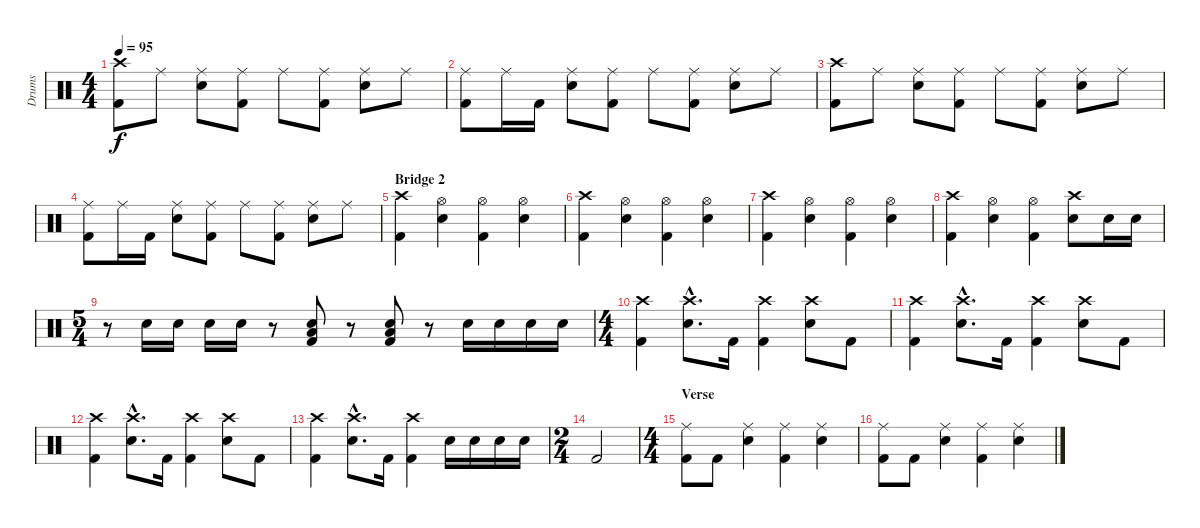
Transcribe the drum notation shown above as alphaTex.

\track ("Drums" "Drums") {instrument percussion}
\staff {score}
\articulation defaults
\ts (4 4)
\tempo 95
\clef neutral
\ks c
("Crash high (hit)" "Kick (hit) 2").8{dy f} "Ride (middle)".8 ("Ride (middle)" "Electric Snare (hit)").8 ("Ride (middle)" "Kick (hit) 2").8 "Ride (middle)".8 ("Ride (middle)" "Kick (hit) 2").8 ("Ride (middle)" "Electric Snare (hit)").8 "Ride (middle)".8 |
("Ride (middle)" "Kick (hit) 2").8 "Ride (middle)".16 "Kick (hit) 2".16 ("Ride (middle)" "Electric Snare (hit)").8 ("Ride (middle)" "Kick (hit) 2").8 "Ride (middle)".8 ("Ride (middle)" "Kick (hit) 2").8 ("Ride (middle)" "Electric Snare (hit)").8 "Ride (middle)".8 |
("Crash high (hit)" "Kick (hit) 2").8 "Ride (middle)".8 ("Ride (middle)" "Electric Snare (hit)").8 ("Ride (middle)" "Kick (hit) 2").8 "Ride (middle)".8 ("Ride (middle)" "Kick (hit) 2").8 ("Ride (middle)" "Electric Snare (hit)").8 "Ride (middle)".8 |
("Ride (middle)" "Kick (hit) 2").8 "Ride (middle)".16 "Kick (hit) 2".16 ("Ride (middle)" "Electric Snare (hit)").8 ("Ride (middle)" "Kick (hit) 2").8 "Ride (middle)".8 ("Ride (middle)" "Kick (hit) 2").8 ("Ride (middle)" "Electric Snare (hit)").8 "Ride (middle)".8 |
\section ("" "Bridge 2")
("Crash high (hit)" "Kick (hit) 2").4 ("Hi-Hat (open)" "Electric Snare (hit)").4 ("Hi-Hat (open)" "Kick (hit) 2").4 ("Hi-Hat (open)" "Electric Snare (hit)").4 |
("Crash high (hit)" "Kick (hit) 2").4 ("Hi-Hat (open)" "Electric Snare (hit)").4 ("Hi-Hat (open)" "Kick (hit) 2").4 ("Hi-Hat (open)" "Electric Snare (hit)").4 |
("Crash high (hit)" "Kick (hit) 2").4 ("Hi-Hat (open)" "Electric Snare (hit)").4 ("Hi-Hat (open)" "Kick (hit) 2").4 ("Hi-Hat (open)" "Electric Snare (hit)").4 |
("Crash high (hit)" "Kick (hit) 2").4 ("Hi-Hat (open)" "Electric Snare (hit)").4 ("Hi-Hat (open)" "Kick (hit) 2").4 ("Crash high (hit)" "Electric Snare (hit)").8 "Electric Snare (hit)".16 "Electric Snare (hit)".16 |
\ts (5 4)
r.8 "Electric Snare (hit)".16 "Electric Snare (hit)".16 "Electric Snare (hit)".16 "Electric Snare (hit)".16 r.8 ("Electric Snare (hit)" "Low Floor Tom (hit)" "Kick (hit) 2").8 r.8 ("Electric Snare (hit)" "Low Floor Tom (hit)" "Kick (hit) 2").8 r.8 "Electric Snare (hit)".16 "Electric Snare (hit)".16 "Electric Snare (hit)".16 "Electric Snare (hit)".16 |
\ts (4 4)
("Crash high (hit)" "Kick (hit) 2").4 ("Crash high (hit)"{hac} "Electric Snare (hit)"{hac}).8{d} "Kick (hit) 2".16 ("Crash high (hit)" "Kick (hit) 2").4 ("Crash high (hit)" "Electric Snare (hit)").8 "Kick (hit) 2".8 |
("Crash high (hit)" "Kick (hit) 2").4 ("Crash high (hit)"{hac} "Electric Snare (hit)"{hac}).8{d} "Kick (hit) 2".16 ("Crash high (hit)" "Kick (hit) 2").4 ("Crash high (hit)" "Electric Snare (hit)").8 "Kick (hit) 2".8 |
("Crash high (hit)" "Kick (hit) 2").4 ("Crash high (hit)"{hac} "Electric Snare (hit)"{hac}).8{d} "Kick (hit) 2".16 ("Crash high (hit)" "Kick (hit) 2").4 ("Crash high (hit)" "Electric Snare (hit)").8 "Kick (hit) 2".8 |
("Crash high (hit)" "Kick (hit) 2").4 ("Crash high (hit)"{hac} "Electric Snare (hit)"{hac}).8{d} "Kick (hit) 2".16 ("Crash high (hit)" "Kick (hit) 2").4 "Electric Snare (hit)".16 "Electric Snare (hit)".16 "Electric Snare (hit)".16 "Electric Snare (hit)".16 |
\ts (2 4)
\section ("" "")
"Kick (hit) 2".2 |
\ts (4 4)
\section ("" "Verse")
("Ride (middle)" "Kick (hit) 2").8 "Kick (hit) 2".8 ("Ride (middle)" "Electric Snare (hit)").4 ("Ride (middle)" "Kick (hit) 2").4 ("Ride (middle)" "Electric Snare (hit)").4 |
("Ride (middle)" "Kick (hit) 2").8 "Kick (hit) 2".8 ("Ride (middle)" "Electric Snare (hit)").4 ("Ride (middle)" "Kick (hit) 2").4 ("Ride (middle)" "Electric Snare (hit)").4
